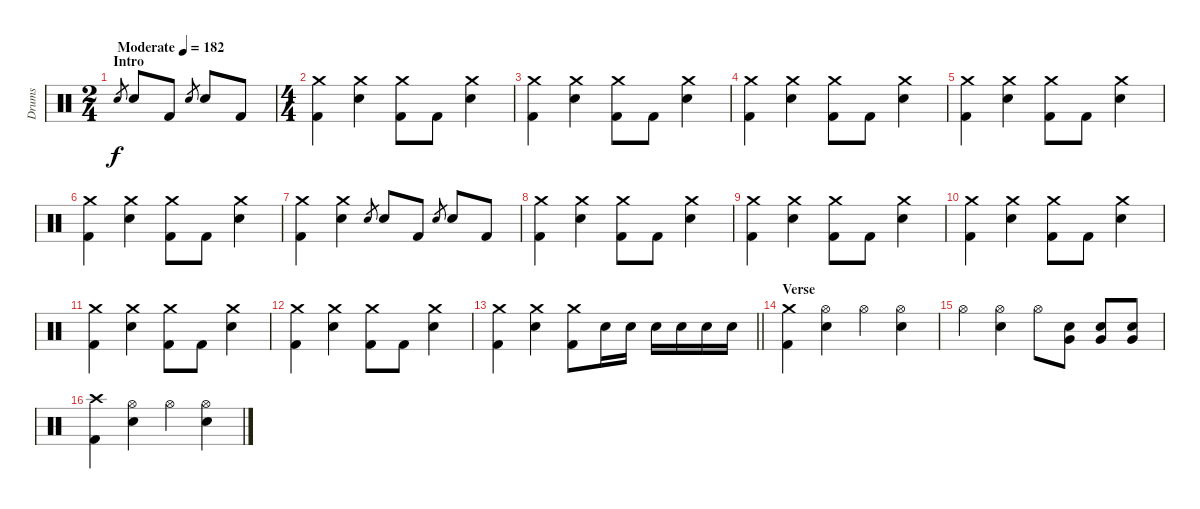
\track ("Drums" "Drums") {instrument percussion}
\staff {score}
\articulation defaults
\ts (2 4)
\section ("" "Intro")
\tempo (182 "Moderate")
\clef neutral
\ks c "Electric Snare (hit)".8{gr dy f} "Electric Snare (hit)".8 "Kick (hit) 2".8 "Electric Snare (hit)".8{gr} "Electric Snare (hit)".8 "Kick (hit) 2".8
|
\ts (4 4)
("Crash medium (hit)" "Kick (hit) 2").4 ("Crash medium (hit)" "Electric Snare (hit)").4 ("Crash medium (hit)" "Kick (hit) 2").8 "Kick (hit) 2".8 ("Crash medium (hit)" "Electric Snare (hit)").4 |
("Crash medium (hit)" "Kick (hit) 2").4 ("Crash medium (hit)" "Electric Snare (hit)").4 ("Crash medium (hit)" "Kick (hit) 2").8 "Kick (hit) 2".8 ("Crash medium (hit)" "Electric Snare (hit)").4 |
("Crash medium (hit)" "Kick (hit) 2").4 ("Crash medium (hit)" "Electric Snare (hit)").4 ("Crash medium (hit)" "Kick (hit) 2").8 "Kick (hit) 2".8 ("Crash medium (hit)" "Electric Snare (hit)").4 |
("Crash medium (hit)" "Kick (hit) 2").4 ("Crash medium (hit)" "Electric Snare (hit)").4 ("Crash medium (hit)" "Kick (hit) 2").8 "Kick (hit) 2".8 ("Crash medium (hit)" "Electric Snare (hit)").4 |
("Crash medium (hit)" "Kick (hit) 2").4 ("Crash medium (hit)" "Electric Snare (hit)").4 ("Crash medium (hit)" "Kick (hit) 2").8 "Kick (hit) 2".8 ("Crash medium (hit)" "Electric Snare (hit)").4 |
("Crash medium (hit)" "Kick (hit) 2").4 ("Crash medium (hit)" "Electric Snare (hit)").4 "Electric Snare (hit)".8{gr} "Electric Snare (hit)".8 "Kick (hit) 2".8 "Electric Snare (hit)".8{gr} "Electric Snare (hit)".8 "Kick (hit) 2".8 |
("Crash medium (hit)" "Kick (hit) 2").4 ("Crash medium (hit)" "Electric Snare (hit)").4 ("Crash medium (hit)" "Kick (hit) 2").8 "Kick (hit) 2".8 ("Crash medium (hit)" "Electric Snare (hit)").4 |
("Crash medium (hit)" "Kick (hit) 2").4 ("Crash medium (hit)" "Electric Snare (hit)").4 ("Crash medium (hit)" "Kick (hit) 2").8 "Kick (hit) 2".8 ("Crash medium (hit)" "Electric Snare (hit)").4 |
("Crash medium (hit)" "Kick (hit) 2").4 ("Crash medium (hit)" "Electric Snare (hit)").4 ("Crash medium (hit)" "Kick (hit) 2").8 "Kick (hit) 2".8 ("Crash medium (hit)" "Electric Snare (hit)").4 |
("Crash medium (hit)" "Kick (hit) 2").4 ("Crash medium (hit)" "Electric Snare (hit)").4 ("Crash medium (hit)" "Kick (hit) 2").8 "Kick (hit) 2".8 ("Crash medium (hit)" "Electric Snare (hit)").4 |
("Crash medium (hit)" "Kick (hit) 2").4 ("Crash medium (hit)" "Electric Snare (hit)").4 ("Crash medium (hit)" "Kick (hit) 2").8 "Kick (hit) 2".8 ("Crash medium (hit)" "Electric Snare (hit)").4 |
\barLineRight lightlight
("Crash medium (hit)" "Kick (hit) 2").4 ("Crash medium (hit)" "Electric Snare (hit)").4 ("Crash medium (hit)" "Kick (hit) 2").8 "Electric Snare (hit)".16 "Electric Snare (hit)".16 "Electric Snare (hit)".16 "Electric Snare (hit)".16 "Electric Snare (hit)".16 "Electric Snare (hit)".16 |
\section ("" "Verse")
("Crash medium (hit)" "Kick (hit) 2").4 ("Hi-Hat (open)" "Electric Snare (hit)").4 "Hi-Hat (open)".4 ("Hi-Hat (open)" "Electric Snare (hit)").4 |
"Hi-Hat (open)".4 ("Hi-Hat (open)" "Electric Snare (hit)").4 "Hi-Hat (open)".8 ("Very Low Tom (hit)" "Electric Snare (hit)").8 ("Very Low Tom (hit)" "Electric Snare (hit)").8 ("Very Low Tom (hit)" "Electric Snare (hit)").8 |
("Crash high (hit)" "Kick (hit) 2").4 ("Hi-Hat (open)" "Electric Snare (hit)").4 "Hi-Hat (open)".4 ("Hi-Hat (open)" "Electric Snare (hit)").4
